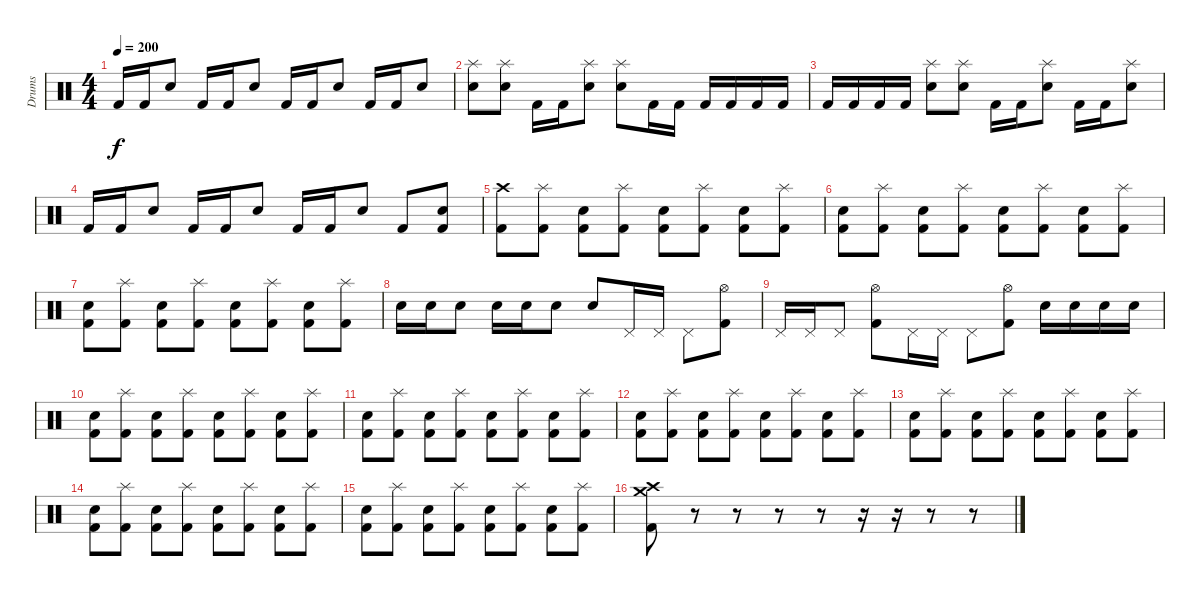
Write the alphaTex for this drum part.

\track ("Drums" "Drums") {instrument percussion}
\staff {score}
\articulation defaults
\ts (4 4)
\tempo 200
\clef neutral
\ks c "Kick (hit) 2".16{dy f} "Kick (hit) 2".16 "Snare (hit) 2".8 "Kick (hit) 2".16 "Kick (hit) 2".16 "Snare (hit) 2".8 "Kick (hit) 2".16 "Kick (hit) 2".16 "Snare (hit) 2".8 "Kick (hit) 2".16 "Kick (hit) 2".16 "Snare (hit) 2".8
|
("Splash (hit)" "Snare (hit) 2").8 ("Splash (hit)" "Snare (hit) 2").8 "Kick (hit) 2".16 "Kick (hit) 2".16 ("Splash (hit)" "Snare (hit) 2").8 ("Splash (hit)" "Snare (hit) 2").8 "Kick (hit) 2".16 "Kick (hit) 2".16 "Kick (hit) 2".16 "Kick (hit) 2".16 "Kick (hit) 2".16 "Kick (hit) 2".16 |
"Kick (hit) 2".16 "Kick (hit) 2".16 "Kick (hit) 2".16 "Kick (hit) 2".16 ("Splash (hit)" "Snare (hit) 2").8 ("Splash (hit)" "Snare (hit) 2").8 "Kick (hit) 2".16 "Kick (hit) 2".16 ("Splash (hit)" "Snare (hit) 2").8 "Kick (hit) 2".16 "Kick (hit) 2".16 ("Splash (hit)" "Snare (hit) 2").8 |
"Kick (hit) 2".16 "Kick (hit) 2".16 "Snare (hit) 2".8 "Kick (hit) 2".16 "Kick (hit) 2".16 "Snare (hit) 2".8 "Kick (hit) 2".16 "Kick (hit) 2".16 "Snare (hit) 2".8 "Kick (hit) 2".8 ("Snare (hit) 2" "Kick (hit) 2").8 |
("Crash high (hit)" "Kick (hit) 2").8 ("Splash (hit)" "Kick (hit) 2").8 ("Snare (hit) 2" "Kick (hit) 2").8 ("Splash (hit)" "Kick (hit) 2").8 ("Snare (hit) 2" "Kick (hit) 2").8 ("Splash (hit)" "Kick (hit) 2").8 ("Snare (hit) 2" "Kick (hit) 2").8 ("Splash (hit)" "Kick (hit) 2").8 |
("Snare (hit) 2" "Kick (hit) 2").8 ("Splash (hit)" "Kick (hit) 2").8 ("Snare (hit) 2" "Kick (hit) 2").8 ("Splash (hit)" "Kick (hit) 2").8 ("Snare (hit) 2" "Kick (hit) 2").8 ("Splash (hit)" "Kick (hit) 2").8 ("Snare (hit) 2" "Kick (hit) 2").8 ("Splash (hit)" "Kick (hit) 2").8 |
("Snare (hit) 2" "Kick (hit) 2").8 ("Splash (hit)" "Kick (hit) 2").8 ("Snare (hit) 2" "Kick (hit) 2").8 ("Splash (hit)" "Kick (hit) 2").8 ("Snare (hit) 2" "Kick (hit) 2").8 ("Splash (hit)" "Kick (hit) 2").8 ("Snare (hit) 2" "Kick (hit) 2").8 ("Splash (hit)" "Kick (hit) 2").8 |
"Snare (hit) 2".16 "Snare (hit) 2".16 "Snare (hit) 2".8 "Snare (hit) 2".16 "Snare (hit) 2".16 "Snare (hit) 2".8 "Snare (hit) 2".8 "Pedal Hi-Hat (hit)".16 "Pedal Hi-Hat (hit)".16 "Pedal Hi-Hat (hit)".8 ("Hi-Hat (open)" "Kick (hit) 2").8 |
"Pedal Hi-Hat (hit)".16 "Pedal Hi-Hat (hit)".16 "Pedal Hi-Hat (hit)".8 ("Hi-Hat (open)" "Kick (hit) 2").8 "Pedal Hi-Hat (hit)".16 "Pedal Hi-Hat (hit)".16 "Pedal Hi-Hat (hit)".8 ("Hi-Hat (open)" "Kick (hit) 2").8 "Snare (hit) 2".16 "Snare (hit) 2".16 "Snare (hit) 2".16 "Snare (hit) 2".16 |
("Snare (hit) 2" "Kick (hit) 2").8 ("Splash (hit)" "Kick (hit) 2").8 ("Snare (hit) 2" "Kick (hit) 2").8 ("Splash (hit)" "Kick (hit) 2").8 ("Snare (hit) 2" "Kick (hit) 2").8 ("Splash (hit)" "Kick (hit) 2").8 ("Snare (hit) 2" "Kick (hit) 2").8 ("Splash (hit)" "Kick (hit) 2").8 |
("Snare (hit) 2" "Kick (hit) 2").8 ("Splash (hit)" "Kick (hit) 2").8 ("Snare (hit) 2" "Kick (hit) 2").8 ("Splash (hit)" "Kick (hit) 2").8 ("Snare (hit) 2" "Kick (hit) 2").8 ("Splash (hit)" "Kick (hit) 2").8 ("Snare (hit) 2" "Kick (hit) 2").8 ("Splash (hit)" "Kick (hit) 2").8 |
("Snare (hit) 2" "Kick (hit) 2").8 ("Splash (hit)" "Kick (hit) 2").8 ("Snare (hit) 2" "Kick (hit) 2").8 ("Splash (hit)" "Kick (hit) 2").8 ("Snare (hit) 2" "Kick (hit) 2").8 ("Splash (hit)" "Kick (hit) 2").8 ("Snare (hit) 2" "Kick (hit) 2").8 ("Splash (hit)" "Kick (hit) 2").8 |
("Snare (hit) 2" "Kick (hit) 2").8 ("Splash (hit)" "Kick (hit) 2").8 ("Snare (hit) 2" "Kick (hit) 2").8 ("Splash (hit)" "Kick (hit) 2").8 ("Snare (hit) 2" "Kick (hit) 2").8 ("Splash (hit)" "Kick (hit) 2").8 ("Snare (hit) 2" "Kick (hit) 2").8 ("Splash (hit)" "Kick (hit) 2").8 |
("Snare (hit) 2" "Kick (hit) 2").8 ("Splash (hit)" "Kick (hit) 2").8 ("Snare (hit) 2" "Kick (hit) 2").8 ("Splash (hit)" "Kick (hit) 2").8 ("Snare (hit) 2" "Kick (hit) 2").8 ("Splash (hit)" "Kick (hit) 2").8 ("Snare (hit) 2" "Kick (hit) 2").8 ("Splash (hit)" "Kick (hit) 2").8 |
("Snare (hit) 2" "Kick (hit) 2").8 ("Splash (hit)" "Kick (hit) 2").8 ("Snare (hit) 2" "Kick (hit) 2").8 ("Splash (hit)" "Kick (hit) 2").8 ("Snare (hit) 2" "Kick (hit) 2").8 ("Splash (hit)" "Kick (hit) 2").8 ("Snare (hit) 2" "Kick (hit) 2").8 ("Splash (hit)" "Kick (hit) 2").8 |
("Crash medium (hit)" "Crash high (hit)" "Kick (hit) 2").8 r.8 r.8 r.8 r.8 r.16 r.16 r.8 r.8
